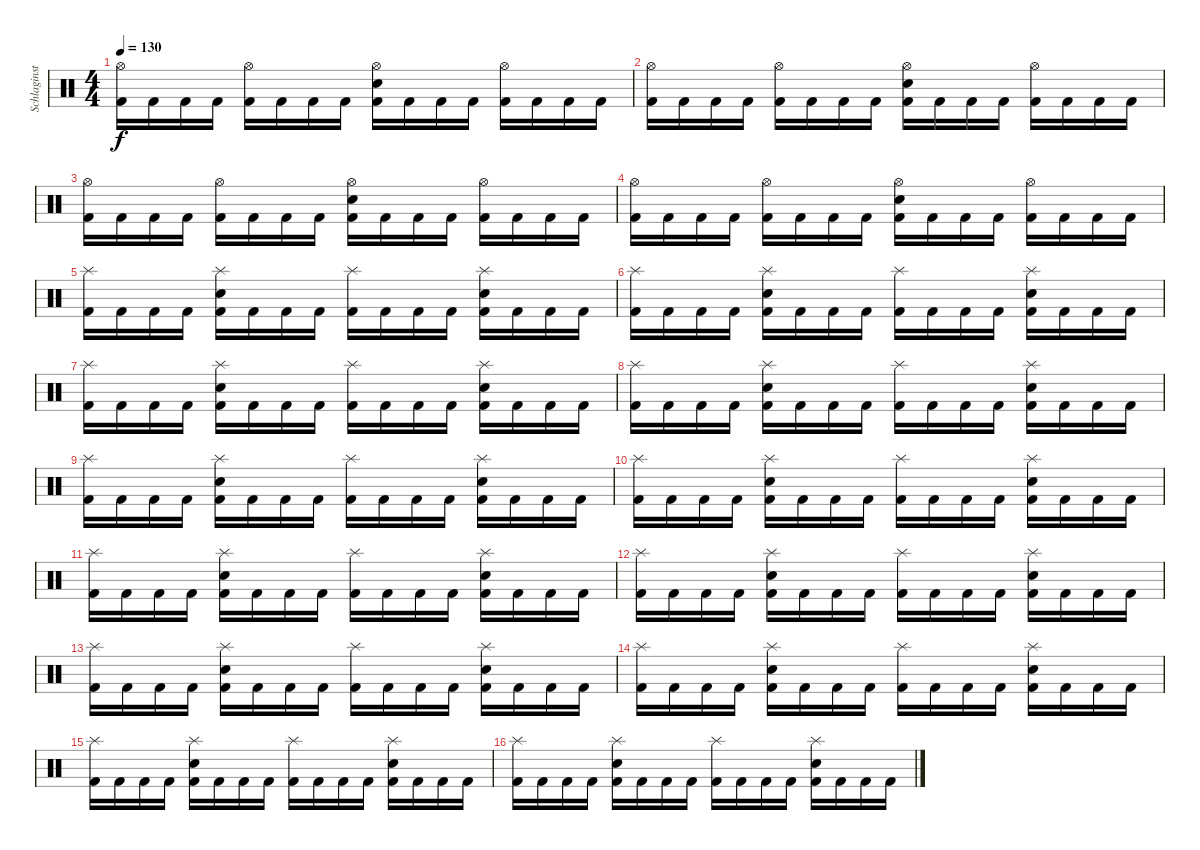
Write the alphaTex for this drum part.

\track ("Schlaginstrumente - Auswahl" "Schlaginst") {instrument percussion}
\staff {score}
\articulation defaults
\ts (4 4)
\tempo 130
\clef neutral
\ks c
("Hi-Hat (open)" "Kick (hit) 2").16{dy f} "Kick (hit) 2".16 "Kick (hit) 2".16 "Kick (hit) 2".16 ("Hi-Hat (open)" "Kick (hit) 2").16 "Kick (hit) 2".16 "Kick (hit) 2".16 "Kick (hit) 2".16 ("Hi-Hat (open)" "Snare (hit) 2" "Kick (hit) 2").16 "Kick (hit) 2".16 "Kick (hit) 2".16 "Kick (hit) 2".16 ("Hi-Hat (open)" "Kick (hit) 2").16 "Kick (hit) 2".16 "Kick (hit) 2".16 "Kick (hit) 2".16 |
("Hi-Hat (open)" "Kick (hit) 2").16 "Kick (hit) 2".16 "Kick (hit) 2".16 "Kick (hit) 2".16 ("Hi-Hat (open)" "Kick (hit) 2").16 "Kick (hit) 2".16 "Kick (hit) 2".16 "Kick (hit) 2".16 ("Hi-Hat (open)" "Snare (hit) 2" "Kick (hit) 2").16 "Kick (hit) 2".16 "Kick (hit) 2".16 "Kick (hit) 2".16 ("Hi-Hat (open)" "Kick (hit) 2").16 "Kick (hit) 2".16 "Kick (hit) 2".16 "Kick (hit) 2".16 |
("Hi-Hat (open)" "Kick (hit) 2").16 "Kick (hit) 2".16 "Kick (hit) 2".16 "Kick (hit) 2".16 ("Hi-Hat (open)" "Kick (hit) 2").16 "Kick (hit) 2".16 "Kick (hit) 2".16 "Kick (hit) 2".16 ("Hi-Hat (open)" "Snare (hit) 2" "Kick (hit) 2").16 "Kick (hit) 2".16 "Kick (hit) 2".16 "Kick (hit) 2".16 ("Hi-Hat (open)" "Kick (hit) 2").16 "Kick (hit) 2".16 "Kick (hit) 2".16 "Kick (hit) 2".16 |
("Hi-Hat (open)" "Kick (hit) 2").16 "Kick (hit) 2".16 "Kick (hit) 2".16 "Kick (hit) 2".16 ("Hi-Hat (open)" "Kick (hit) 2").16 "Kick (hit) 2".16 "Kick (hit) 2".16 "Kick (hit) 2".16 ("Hi-Hat (open)" "Snare (hit) 2" "Kick (hit) 2").16 "Kick (hit) 2".16 "Kick (hit) 2".16 "Kick (hit) 2".16 ("Hi-Hat (open)" "Kick (hit) 2").16 "Kick (hit) 2".16 "Kick (hit) 2".16 "Kick (hit) 2".16 |
("Splash (hit)" "Kick (hit) 2").16 "Kick (hit) 2".16 "Kick (hit) 2".16 "Kick (hit) 2".16 ("Splash (hit)" "Snare (hit) 2" "Kick (hit) 2").16 "Kick (hit) 2".16 "Kick (hit) 2".16 "Kick (hit) 2".16 ("Splash (hit)" "Kick (hit) 2").16 "Kick (hit) 2".16 "Kick (hit) 2".16 "Kick (hit) 2".16 ("Splash (hit)" "Snare (hit) 2" "Kick (hit) 2").16 "Kick (hit) 2".16 "Kick (hit) 2".16 "Kick (hit) 2".16 |
("Splash (hit)" "Kick (hit) 2").16 "Kick (hit) 2".16 "Kick (hit) 2".16 "Kick (hit) 2".16 ("Splash (hit)" "Snare (hit) 2" "Kick (hit) 2").16 "Kick (hit) 2".16 "Kick (hit) 2".16 "Kick (hit) 2".16 ("Splash (hit)" "Kick (hit) 2").16 "Kick (hit) 2".16 "Kick (hit) 2".16 "Kick (hit) 2".16 ("Splash (hit)" "Snare (hit) 2" "Kick (hit) 2").16 "Kick (hit) 2".16 "Kick (hit) 2".16 "Kick (hit) 2".16 |
("Splash (hit)" "Kick (hit) 2").16 "Kick (hit) 2".16 "Kick (hit) 2".16 "Kick (hit) 2".16 ("Splash (hit)" "Snare (hit) 2" "Kick (hit) 2").16 "Kick (hit) 2".16 "Kick (hit) 2".16 "Kick (hit) 2".16 ("Splash (hit)" "Kick (hit) 2").16 "Kick (hit) 2".16 "Kick (hit) 2".16 "Kick (hit) 2".16 ("Splash (hit)" "Snare (hit) 2" "Kick (hit) 2").16 "Kick (hit) 2".16 "Kick (hit) 2".16 "Kick (hit) 2".16 |
("Splash (hit)" "Kick (hit) 2").16 "Kick (hit) 2".16 "Kick (hit) 2".16 "Kick (hit) 2".16 ("Splash (hit)" "Snare (hit) 2" "Kick (hit) 2").16 "Kick (hit) 2".16 "Kick (hit) 2".16 "Kick (hit) 2".16 ("Splash (hit)" "Kick (hit) 2").16 "Kick (hit) 2".16 "Kick (hit) 2".16 "Kick (hit) 2".16 ("Splash (hit)" "Snare (hit) 2" "Kick (hit) 2").16 "Kick (hit) 2".16 "Kick (hit) 2".16 "Kick (hit) 2".16 |
("Splash (hit)" "Kick (hit) 2").16 "Kick (hit) 2".16 "Kick (hit) 2".16 "Kick (hit) 2".16 ("Splash (hit)" "Snare (hit) 2" "Kick (hit) 2").16 "Kick (hit) 2".16 "Kick (hit) 2".16 "Kick (hit) 2".16 ("Splash (hit)" "Kick (hit) 2").16 "Kick (hit) 2".16 "Kick (hit) 2".16 "Kick (hit) 2".16 ("Splash (hit)" "Snare (hit) 2" "Kick (hit) 2").16 "Kick (hit) 2".16 "Kick (hit) 2".16 "Kick (hit) 2".16 |
("Splash (hit)" "Kick (hit) 2").16 "Kick (hit) 2".16 "Kick (hit) 2".16 "Kick (hit) 2".16 ("Splash (hit)" "Snare (hit) 2" "Kick (hit) 2").16 "Kick (hit) 2".16 "Kick (hit) 2".16 "Kick (hit) 2".16 ("Splash (hit)" "Kick (hit) 2").16 "Kick (hit) 2".16 "Kick (hit) 2".16 "Kick (hit) 2".16 ("Splash (hit)" "Snare (hit) 2" "Kick (hit) 2").16 "Kick (hit) 2".16 "Kick (hit) 2".16 "Kick (hit) 2".16 |
("Splash (hit)" "Kick (hit) 2").16 "Kick (hit) 2".16 "Kick (hit) 2".16 "Kick (hit) 2".16 ("Splash (hit)" "Snare (hit) 2" "Kick (hit) 2").16 "Kick (hit) 2".16 "Kick (hit) 2".16 "Kick (hit) 2".16 ("Splash (hit)" "Kick (hit) 2").16 "Kick (hit) 2".16 "Kick (hit) 2".16 "Kick (hit) 2".16 ("Splash (hit)" "Snare (hit) 2" "Kick (hit) 2").16 "Kick (hit) 2".16 "Kick (hit) 2".16 "Kick (hit) 2".16 |
("Splash (hit)" "Kick (hit) 2").16 "Kick (hit) 2".16 "Kick (hit) 2".16 "Kick (hit) 2".16 ("Splash (hit)" "Snare (hit) 2" "Kick (hit) 2").16 "Kick (hit) 2".16 "Kick (hit) 2".16 "Kick (hit) 2".16 ("Splash (hit)" "Kick (hit) 2").16 "Kick (hit) 2".16 "Kick (hit) 2".16 "Kick (hit) 2".16 ("Splash (hit)" "Snare (hit) 2" "Kick (hit) 2").16 "Kick (hit) 2".16 "Kick (hit) 2".16 "Kick (hit) 2".16 |
("Splash (hit)" "Kick (hit) 2").16 "Kick (hit) 2".16 "Kick (hit) 2".16 "Kick (hit) 2".16 ("Splash (hit)" "Snare (hit) 2" "Kick (hit) 2").16 "Kick (hit) 2".16 "Kick (hit) 2".16 "Kick (hit) 2".16 ("Splash (hit)" "Kick (hit) 2").16 "Kick (hit) 2".16 "Kick (hit) 2".16 "Kick (hit) 2".16 ("Splash (hit)" "Snare (hit) 2" "Kick (hit) 2").16 "Kick (hit) 2".16 "Kick (hit) 2".16 "Kick (hit) 2".16 |
("Splash (hit)" "Kick (hit) 2").16 "Kick (hit) 2".16 "Kick (hit) 2".16 "Kick (hit) 2".16 ("Splash (hit)" "Snare (hit) 2" "Kick (hit) 2").16 "Kick (hit) 2".16 "Kick (hit) 2".16 "Kick (hit) 2".16 ("Splash (hit)" "Kick (hit) 2").16 "Kick (hit) 2".16 "Kick (hit) 2".16 "Kick (hit) 2".16 ("Splash (hit)" "Snare (hit) 2" "Kick (hit) 2").16 "Kick (hit) 2".16 "Kick (hit) 2".16 "Kick (hit) 2".16 |
("Splash (hit)" "Kick (hit) 2").16 "Kick (hit) 2".16 "Kick (hit) 2".16 "Kick (hit) 2".16 ("Splash (hit)" "Snare (hit) 2" "Kick (hit) 2").16 "Kick (hit) 2".16 "Kick (hit) 2".16 "Kick (hit) 2".16 ("Splash (hit)" "Kick (hit) 2").16 "Kick (hit) 2".16 "Kick (hit) 2".16 "Kick (hit) 2".16 ("Splash (hit)" "Snare (hit) 2" "Kick (hit) 2").16 "Kick (hit) 2".16 "Kick (hit) 2".16 "Kick (hit) 2".16 |
("Splash (hit)" "Kick (hit) 2").16 "Kick (hit) 2".16 "Kick (hit) 2".16 "Kick (hit) 2".16 ("Splash (hit)" "Snare (hit) 2" "Kick (hit) 2").16 "Kick (hit) 2".16 "Kick (hit) 2".16 "Kick (hit) 2".16 ("Splash (hit)" "Kick (hit) 2").16 "Kick (hit) 2".16 "Kick (hit) 2".16 "Kick (hit) 2".16 ("Splash (hit)" "Snare (hit) 2" "Kick (hit) 2").16 "Kick (hit) 2".16 "Kick (hit) 2".16 "Kick (hit) 2".16
